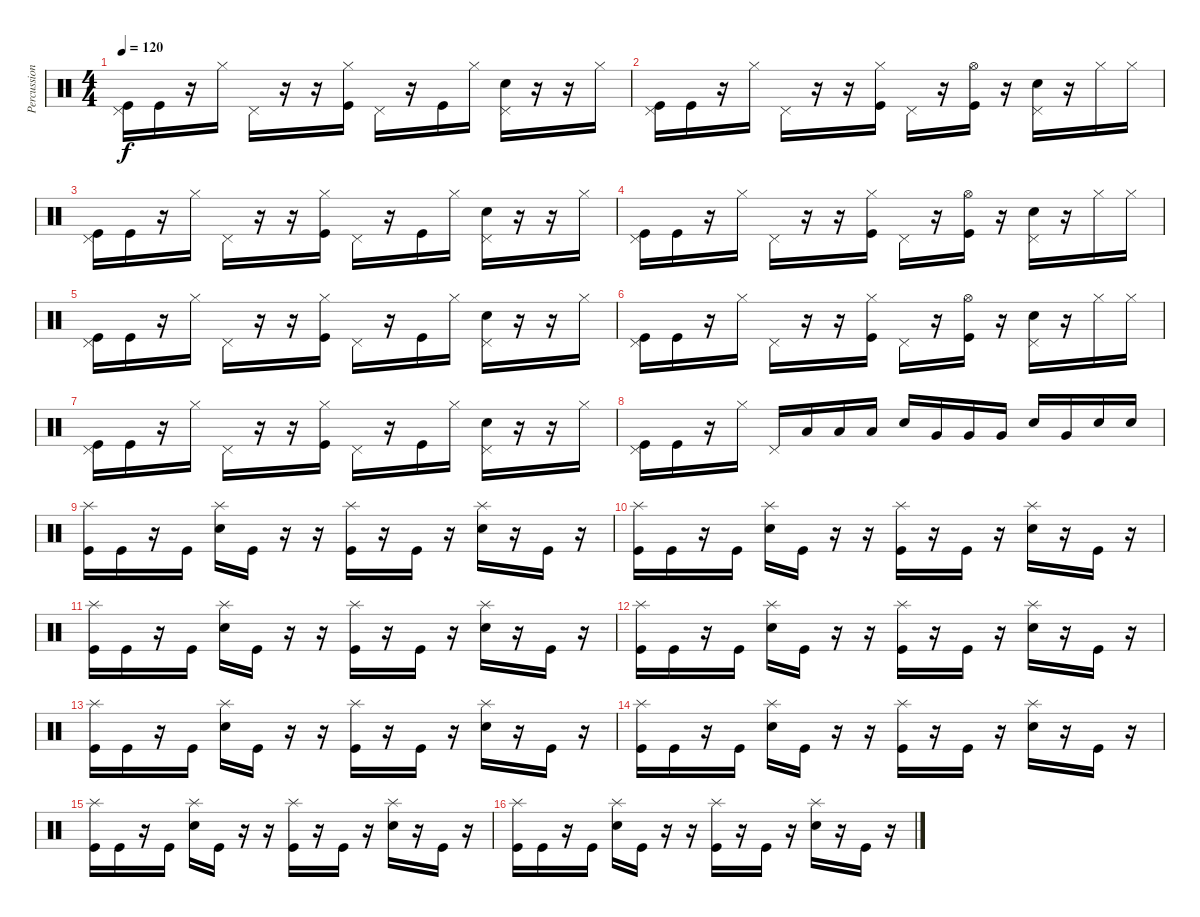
\track ("Percussion" "Percussion") {instrument percussion}
\staff {score}
\articulation defaults
\ts (4 4)
\tempo 120
\clef neutral
\ks c
("Pedal Hi-Hat (hit)" "Kick (hit)").16{dy f} "Kick (hit)".16 r.16 "Hi-Hat (closed)".16 "Pedal Hi-Hat (hit)".16 r.16 r.16 ("Hi-Hat (closed)" "Kick (hit)").16 "Pedal Hi-Hat (hit)".16 r.16 "Kick (hit)".16 "Hi-Hat (closed)".16 ("Pedal Hi-Hat (hit)" "Electric Snare (hit)").16 r.16 r.16 "Hi-Hat (closed)".16 |
("Pedal Hi-Hat (hit)" "Kick (hit)").16 "Kick (hit)".16 r.16 "Hi-Hat (closed)".16 "Pedal Hi-Hat (hit)".16 r.16 r.16 ("Hi-Hat (closed)" "Kick (hit)").16 "Pedal Hi-Hat (hit)".16 r.16 ("Hi-Hat (open)" "Kick (hit)").16 r.16 ("Pedal Hi-Hat (hit)" "Electric Snare (hit)").16 r.16 "Hi-Hat (closed)".16 "Hi-Hat (closed)".16 |
("Pedal Hi-Hat (hit)" "Kick (hit)").16 "Kick (hit)".16 r.16 "Hi-Hat (closed)".16 "Pedal Hi-Hat (hit)".16 r.16 r.16 ("Hi-Hat (closed)" "Kick (hit)").16 "Pedal Hi-Hat (hit)".16 r.16 "Kick (hit)".16 "Hi-Hat (closed)".16 ("Pedal Hi-Hat (hit)" "Electric Snare (hit)").16 r.16 r.16 "Hi-Hat (closed)".16 |
("Pedal Hi-Hat (hit)" "Kick (hit)").16 "Kick (hit)".16 r.16 "Hi-Hat (closed)".16 "Pedal Hi-Hat (hit)".16 r.16 r.16 ("Hi-Hat (closed)" "Kick (hit)").16 "Pedal Hi-Hat (hit)".16 r.16 ("Hi-Hat (open)" "Kick (hit)").16 r.16 ("Pedal Hi-Hat (hit)" "Electric Snare (hit)").16 r.16 "Hi-Hat (closed)".16 "Hi-Hat (closed)".16 |
("Pedal Hi-Hat (hit)" "Kick (hit)").16 "Kick (hit)".16 r.16 "Hi-Hat (closed)".16 "Pedal Hi-Hat (hit)".16 r.16 r.16 ("Hi-Hat (closed)" "Kick (hit)").16 "Pedal Hi-Hat (hit)".16 r.16 "Kick (hit)".16 "Hi-Hat (closed)".16 ("Pedal Hi-Hat (hit)" "Electric Snare (hit)").16 r.16 r.16 "Hi-Hat (closed)".16 |
("Pedal Hi-Hat (hit)" "Kick (hit)").16 "Kick (hit)".16 r.16 "Hi-Hat (closed)".16 "Pedal Hi-Hat (hit)".16 r.16 r.16 ("Hi-Hat (closed)" "Kick (hit)").16 "Pedal Hi-Hat (hit)".16 r.16 ("Hi-Hat (open)" "Kick (hit)").16 r.16 ("Pedal Hi-Hat (hit)" "Electric Snare (hit)").16 r.16 "Hi-Hat (closed)".16 "Hi-Hat (closed)".16 |
("Pedal Hi-Hat (hit)" "Kick (hit)").16 "Kick (hit)".16 r.16 "Hi-Hat (closed)".16 "Pedal Hi-Hat (hit)".16 r.16 r.16 ("Hi-Hat (closed)" "Kick (hit)").16 "Pedal Hi-Hat (hit)".16 r.16 "Kick (hit)".16 "Hi-Hat (closed)".16 ("Pedal Hi-Hat (hit)" "Electric Snare (hit)").16 r.16 r.16 "Hi-Hat (closed)".16 |
("Pedal Hi-Hat (hit)" "Kick (hit)").16 "Kick (hit)".16 r.16 "Hi-Hat (closed)".16 "Pedal Hi-Hat (hit)".16 "Low Tom (hit)".16 "Low Tom (hit)".16 "Low Tom (hit)".16 "Electric Snare (hit)".16 "Very Low Tom (hit)".16 "Very Low Tom (hit)".16 "Very Low Tom (hit)".16 "Electric Snare (hit)".16 "Very Low Tom (hit)".16 "Electric Snare (hit)".16 "Electric Snare (hit)".16 |
("Splash (hit)" "Kick (hit)").16 "Kick (hit)".16 r.16 "Kick (hit)".16 ("Splash (hit)" "Electric Snare (hit)").16 "Kick (hit)".16 r.16 r.16 ("Splash (hit)" "Kick (hit)").16 r.16 "Kick (hit)".16 r.16 ("Splash (hit)" "Electric Snare (hit)").16 r.16 "Kick (hit)".16 r.16 |
("Splash (hit)" "Kick (hit)").16 "Kick (hit)".16 r.16 "Kick (hit)".16 ("Splash (hit)" "Electric Snare (hit)").16 "Kick (hit)".16 r.16 r.16 ("Splash (hit)" "Kick (hit)").16 r.16 "Kick (hit)".16 r.16 ("Splash (hit)" "Electric Snare (hit)").16 r.16 "Kick (hit)".16 r.16 |
("Splash (hit)" "Kick (hit)").16 "Kick (hit)".16 r.16 "Kick (hit)".16 ("Splash (hit)" "Electric Snare (hit)").16 "Kick (hit)".16 r.16 r.16 ("Splash (hit)" "Kick (hit)").16 r.16 "Kick (hit)".16 r.16 ("Splash (hit)" "Electric Snare (hit)").16 r.16 "Kick (hit)".16 r.16 |
("Splash (hit)" "Kick (hit)").16 "Kick (hit)".16 r.16 "Kick (hit)".16 ("Splash (hit)" "Electric Snare (hit)").16 "Kick (hit)".16 r.16 r.16 ("Splash (hit)" "Kick (hit)").16 r.16 "Kick (hit)".16 r.16 ("Splash (hit)" "Electric Snare (hit)").16 r.16 "Kick (hit)".16 r.16 |
("Splash (hit)" "Kick (hit)").16 "Kick (hit)".16 r.16 "Kick (hit)".16 ("Splash (hit)" "Electric Snare (hit)").16 "Kick (hit)".16 r.16 r.16 ("Splash (hit)" "Kick (hit)").16 r.16 "Kick (hit)".16 r.16 ("Splash (hit)" "Electric Snare (hit)").16 r.16 "Kick (hit)".16 r.16 |
("Splash (hit)" "Kick (hit)").16 "Kick (hit)".16 r.16 "Kick (hit)".16 ("Splash (hit)" "Electric Snare (hit)").16 "Kick (hit)".16 r.16 r.16 ("Splash (hit)" "Kick (hit)").16 r.16 "Kick (hit)".16 r.16 ("Splash (hit)" "Electric Snare (hit)").16 r.16 "Kick (hit)".16 r.16 |
("Splash (hit)" "Kick (hit)").16 "Kick (hit)".16 r.16 "Kick (hit)".16 ("Splash (hit)" "Electric Snare (hit)").16 "Kick (hit)".16 r.16 r.16 ("Splash (hit)" "Kick (hit)").16 r.16 "Kick (hit)".16 r.16 ("Splash (hit)" "Electric Snare (hit)").16 r.16 "Kick (hit)".16 r.16 |
("Splash (hit)" "Kick (hit)").16 "Kick (hit)".16 r.16 "Kick (hit)".16 ("Splash (hit)" "Electric Snare (hit)").16 "Kick (hit)".16 r.16 r.16 ("Splash (hit)" "Kick (hit)").16 r.16 "Kick (hit)".16 r.16 ("Splash (hit)" "Electric Snare (hit)").16 r.16 "Kick (hit)".16 r.16
